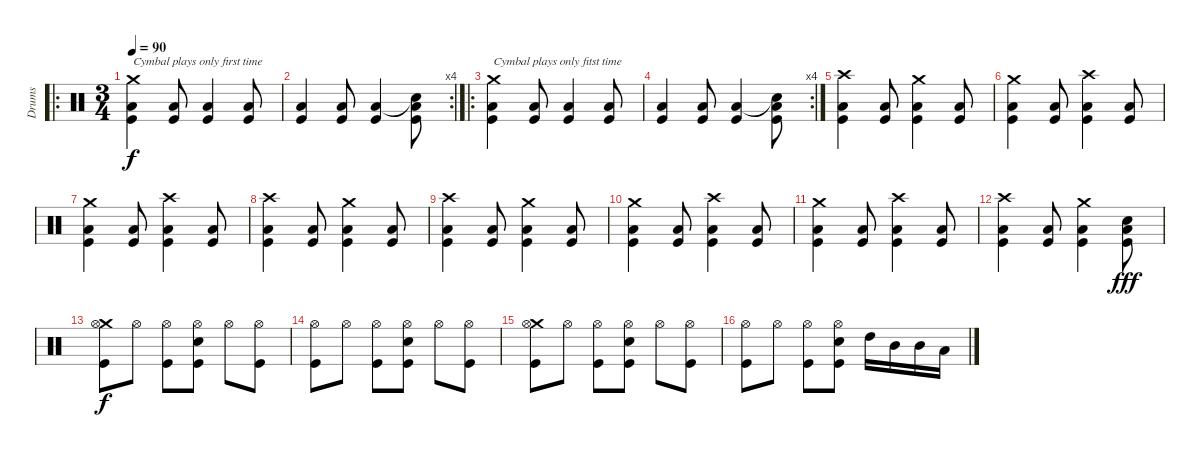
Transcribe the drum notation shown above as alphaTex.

\track ("Drums" "Drums") {instrument percussion}
\staff {score}
\articulation defaults
\ro
\ts (3 4)
\tempo 90
\clef neutral
\ks c
("Crash medium (hit)" "Low Tom (hit)" "Kick (hit)").4{txt "Cymbal plays only first time" dy f} ("Low Tom (hit)" "Kick (hit)").8 ("Low Tom (hit)" "Kick (hit)").4 ("Low Tom (hit)" "Kick (hit)").8 |
\rc 4
("Low Tom (hit)" "Kick (hit)").4 ("Low Tom (hit)" "Kick (hit)").8 ("Low Tom (hit)" "Kick (hit)").4 ("Snare (hit)"{t} "Low Tom (hit)" "Kick (hit)").8 |
\ro
("Crash medium (hit)" "Low Tom (hit)" "Kick (hit)").4{txt "Cymbal plays only fitst time"} ("Low Tom (hit)" "Kick (hit)").8 ("Low Tom (hit)" "Kick (hit)").4 ("Low Tom (hit)" "Kick (hit)").8 |
\rc 4
("Low Tom (hit)" "Kick (hit)").4 ("Low Tom (hit)" "Kick (hit)").8 ("Low Tom (hit)" "Kick (hit)").4 ("Snare (hit)"{t} "Low Tom (hit)" "Kick (hit)").8 |
("Crash high (hit)" "Low Tom (hit)" "Kick (hit)").4 ("Low Tom (hit)" "Kick (hit)").8 ("Crash medium (hit)" "Low Tom (hit)" "Kick (hit)").4 ("Low Tom (hit)" "Kick (hit)").8 |
("Crash medium (hit)" "Low Tom (hit)" "Kick (hit)").4 ("Low Tom (hit)" "Kick (hit)").8 ("Crash high (hit)" "Low Tom (hit)" "Kick (hit)").4 ("Low Tom (hit)" "Kick (hit)").8 |
("Crash medium (hit)" "Low Tom (hit)" "Kick (hit)").4 ("Low Tom (hit)" "Kick (hit)").8 ("Crash high (hit)" "Low Tom (hit)" "Kick (hit)").4 ("Low Tom (hit)" "Kick (hit)").8 |
("Crash high (hit)" "Low Tom (hit)" "Kick (hit)").4 ("Low Tom (hit)" "Kick (hit)").8 ("Crash medium (hit)" "Low Tom (hit)" "Kick (hit)").4 ("Low Tom (hit)" "Kick (hit)").8 |
("Crash high (hit)" "Low Tom (hit)" "Kick (hit)").4 ("Low Tom (hit)" "Kick (hit)").8 ("Crash medium (hit)" "Low Tom (hit)" "Kick (hit)").4 ("Low Tom (hit)" "Kick (hit)").8 |
("Crash medium (hit)" "Low Tom (hit)" "Kick (hit)").4 ("Low Tom (hit)" "Kick (hit)").8 ("Crash high (hit)" "Low Tom (hit)" "Kick (hit)").4 ("Low Tom (hit)" "Kick (hit)").8 |
("Crash medium (hit)" "Low Tom (hit)" "Kick (hit)").4 ("Low Tom (hit)" "Kick (hit)").8 ("Crash high (hit)" "Low Tom (hit)" "Kick (hit)").4 ("Low Tom (hit)" "Kick (hit)").8 |
("Crash high (hit)" "Low Tom (hit)" "Kick (hit)").4 ("Low Tom (hit)" "Kick (hit)").8 ("Crash medium (hit)" "Low Tom (hit)" "Kick (hit)").4 ("Snare (hit) 2" "Low Tom (hit)" "Kick (hit)").8{dy fff} |
("Crash medium (hit)" "Hi-Hat (open)" "Kick (hit)").8{dy f} "Hi-Hat (open)".8 ("Hi-Hat (open)" "Kick (hit)").8 ("Hi-Hat (open)" "Snare (hit) 2" "Kick (hit)").8 "Hi-Hat (open)".8 ("Hi-Hat (open)" "Kick (hit)").8 |
("Hi-Hat (open)" "Kick (hit)").8 "Hi-Hat (open)".8 ("Hi-Hat (open)" "Kick (hit)").8 ("Hi-Hat (open)" "Snare (hit) 2" "Kick (hit)").8 "Hi-Hat (open)".8 ("Hi-Hat (open)" "Kick (hit)").8 |
("Crash medium (hit)" "Hi-Hat (open)" "Kick (hit)").8 "Hi-Hat (open)".8 ("Hi-Hat (open)" "Kick (hit)").8 ("Hi-Hat (open)" "Snare (hit) 2" "Kick (hit)").8 "Hi-Hat (open)".8 ("Hi-Hat (open)" "Kick (hit)").8 |
("Hi-Hat (open)" "Kick (hit)").8 "Hi-Hat (open)".8 ("Hi-Hat (open)" "Kick (hit)").8 ("Hi-Hat (open)" "Snare (hit) 2" "Kick (hit)").8 "High Tom (hit)".16 "Mid Tom (hit)".16 "Mid Tom (hit)".16 "Low Tom (hit)".16
